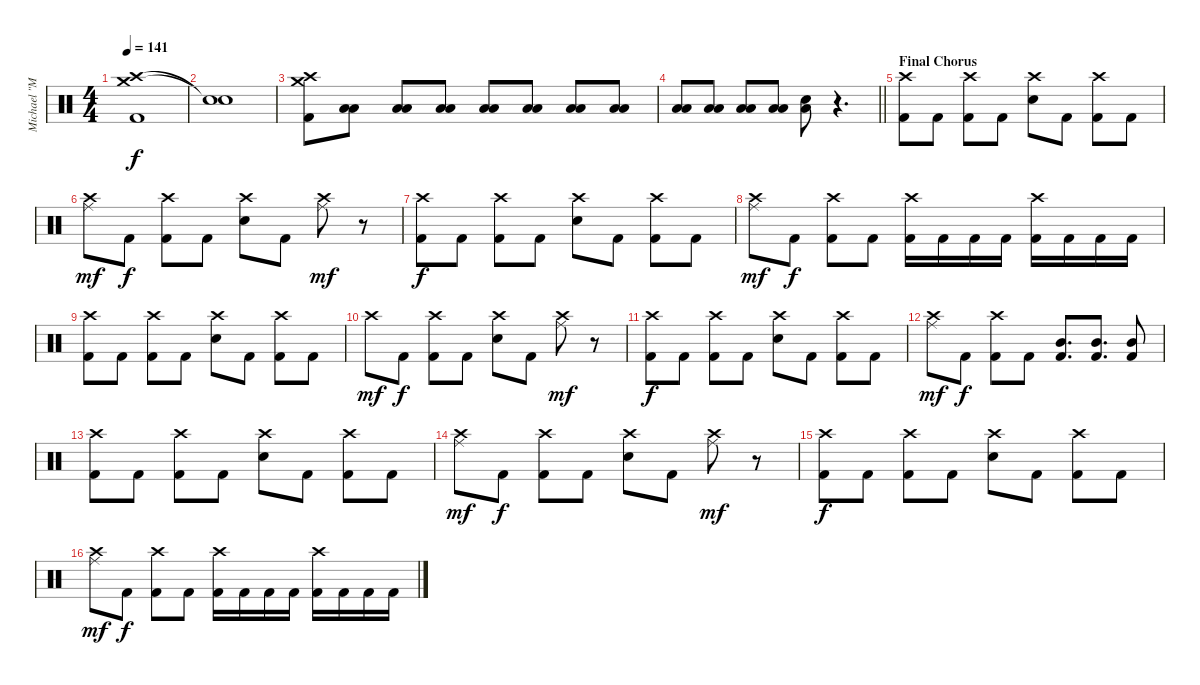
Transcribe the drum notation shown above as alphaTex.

\track ("Michael \"Moose\" Thomas" "Michael \"M") {instrument percussion}
\staff {score}
\articulation defaults
\ts (4 4)
\tempo 141
\clef neutral
\ks c
("Crash high (hit)" "Crash medium (hit)" "Kick (hit) 2").1{dy f} |
("Snare (hit)"{t} "Snare (hit)"{t}).1 |
("Crash high (hit)" "Crash medium (hit)" "Kick (hit) 2").8 ("Low Tom (hit)" "Low Floor Tom (hit)").8 ("Low Tom (hit)" "Low Floor Tom (hit)").8 ("Low Tom (hit)" "Low Floor Tom (hit)").8 ("Low Tom (hit)" "Low Floor Tom (hit)").8 ("Low Tom (hit)" "Low Floor Tom (hit)").8 ("Low Tom (hit)" "Low Floor Tom (hit)").8 ("Low Tom (hit)" "Low Floor Tom (hit)").8 |
\barLineRight lightlight
("Low Tom (hit)" "Low Floor Tom (hit)").8 ("Low Tom (hit)" "Low Floor Tom (hit)").8 ("Low Tom (hit)" "Low Floor Tom (hit)").8 ("Low Tom (hit)" "Low Floor Tom (hit)").8 ("Snare (hit) 2" "Low Floor Tom (hit)").8 r.4{d} |
\section ("" "Final Chorus")
("Crash high (hit)" "Kick (hit) 2").8 "Kick (hit) 2".8 ("Crash high (hit)" "Kick (hit) 2").8 "Kick (hit) 2".8 ("Crash high (hit)" "Snare (hit) 2").8 "Kick (hit) 2".8 ("Crash high (hit)" "Kick (hit) 2").8 "Kick (hit) 2".8 |
("Crash high (hit)" "Ride (middle)").8{dy mf} "Kick (hit) 2".8{dy f} ("Crash high (hit)" "Kick (hit) 2").8 "Kick (hit) 2".8 ("Crash high (hit)" "Snare (hit) 2").8 "Kick (hit) 2".8 ("Crash high (hit)" "Ride (middle)").8{dy mf} r.8 |
("Crash high (hit)" "Kick (hit) 2").8{dy f} "Kick (hit) 2".8 ("Crash high (hit)" "Kick (hit) 2").8 "Kick (hit) 2".8 ("Crash high (hit)" "Snare (hit) 2").8 "Kick (hit) 2".8 ("Crash high (hit)" "Kick (hit) 2").8 "Kick (hit) 2".8 |
("Crash high (hit)" "Ride (middle)").8{dy mf} "Kick (hit) 2".8{dy f} ("Crash high (hit)" "Kick (hit) 2").8 "Kick (hit) 2".8 ("Crash high (hit)" "Kick (hit) 2").16 "Kick (hit) 2".16 "Kick (hit) 2".16 "Kick (hit) 2".16 ("Crash high (hit)" "Kick (hit) 2").16 "Kick (hit) 2".16 "Kick (hit) 2".16 "Kick (hit) 2".16 |
("Crash high (hit)" "Kick (hit) 2").8 "Kick (hit) 2".8 ("Crash high (hit)" "Kick (hit) 2").8 "Kick (hit) 2".8 ("Crash high (hit)" "Snare (hit) 2").8 "Kick (hit) 2".8 ("Crash high (hit)" "Kick (hit) 2").8 "Kick (hit) 2".8 |
"Crash high (hit)".8{dy mf} "Kick (hit) 2".8{dy f} ("Crash high (hit)" "Kick (hit) 2").8 "Kick (hit) 2".8 ("Crash high (hit)" "Snare (hit) 2").8 "Kick (hit) 2".8 ("Crash high (hit)" "Ride (middle)").8{dy mf} r.8 |
("Crash high (hit)" "Kick (hit) 2").8{dy f} "Kick (hit) 2".8 ("Crash high (hit)" "Kick (hit) 2").8 "Kick (hit) 2".8 ("Crash high (hit)" "Snare (hit) 2").8 "Kick (hit) 2".8 ("Crash high (hit)" "Kick (hit) 2").8 "Kick (hit) 2".8 |
("Crash high (hit)" "Ride (middle)").8{dy mf} "Kick (hit) 2".8{dy f} ("Crash high (hit)" "Kick (hit) 2").8 "Kick (hit) 2".8 ("Mid Tom (hit)" "Kick (hit) 2").8{d} ("Mid Tom (hit)" "Kick (hit) 2").8{d} ("Mid Tom (hit)" "Kick (hit) 2").8 |
("Crash high (hit)" "Kick (hit) 2").8 "Kick (hit) 2".8 ("Crash high (hit)" "Kick (hit) 2").8 "Kick (hit) 2".8 ("Crash high (hit)" "Snare (hit) 2").8 "Kick (hit) 2".8 ("Crash high (hit)" "Kick (hit) 2").8 "Kick (hit) 2".8 |
("Crash high (hit)" "Ride (middle)").8{dy mf} "Kick (hit) 2".8{dy f} ("Crash high (hit)" "Kick (hit) 2").8 "Kick (hit) 2".8 ("Crash high (hit)" "Snare (hit) 2").8 "Kick (hit) 2".8 ("Crash high (hit)" "Ride (middle)").8{dy mf} r.8 |
("Crash high (hit)" "Kick (hit) 2").8{dy f} "Kick (hit) 2".8 ("Crash high (hit)" "Kick (hit) 2").8 "Kick (hit) 2".8 ("Crash high (hit)" "Snare (hit) 2").8 "Kick (hit) 2".8 ("Crash high (hit)" "Kick (hit) 2").8 "Kick (hit) 2".8 |
("Crash high (hit)" "Ride (middle)").8{dy mf} "Kick (hit) 2".8{dy f} ("Crash high (hit)" "Kick (hit) 2").8 "Kick (hit) 2".8 ("Crash high (hit)" "Kick (hit) 2").16 "Kick (hit) 2".16 "Kick (hit) 2".16 "Kick (hit) 2".16 ("Crash high (hit)" "Kick (hit) 2").16 "Kick (hit) 2".16 "Kick (hit) 2".16 "Kick (hit) 2".16
